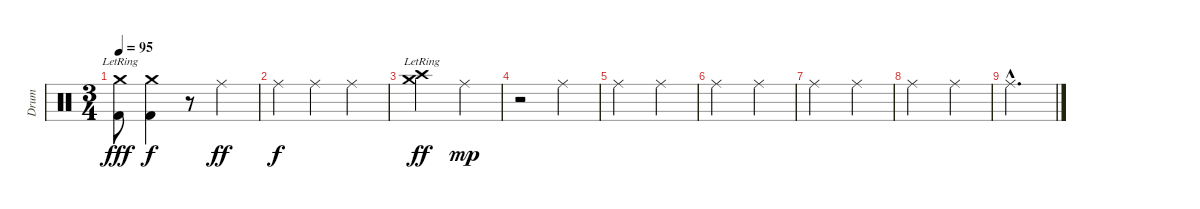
\track ("Drum" "Drum") {instrument percussion}
\staff {score}
\articulation defaults
\ts (3 4)
\tempo 95
\clef neutral
\ks c
("Crash medium (hit)"{lr} "Kick (hit) 2").8{dy fff} ("Crash medium (hit)" "Kick (hit) 2").4{dy f} r.8 "Ride (middle)".4{dy ff} |
"Ride (middle)".4{dy f} "Ride (middle)".4 "Ride (middle)".4 |
("Crash medium (hit)"{lr} "Crash high (hit)").2{dy ff} "Ride (middle)".4{dy mp} |
r.2 "Ride (middle)".4 |
"Ride (middle)".2 "Ride (middle)".4 |
"Ride (middle)".2 "Ride (middle)".4 |
"Ride (middle)".2 "Ride (middle)".4 |
"Ride (middle)".2 "Ride (middle)".4 |
"Ride (middle)"{hac}.2{d}
